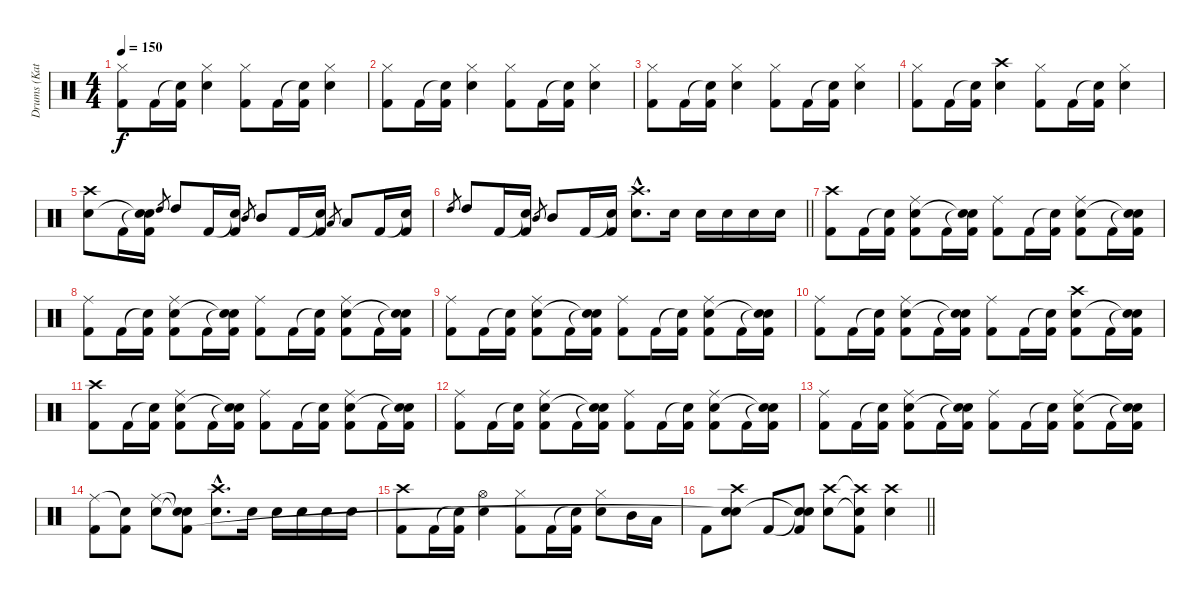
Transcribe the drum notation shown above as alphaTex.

\track ("Drums (Katsuji)" "Drums (Kat") {instrument percussion}
\staff {score}
\articulation defaults
\ts (4 4)
\tempo 150
\clef neutral
\ks c
("Hi-Hat (closed)" "Kick (hit) 2").8{dy f} "Kick (hit) 2".16 ("Snare (hit)"{t} "Kick (hit) 2").16 ("Hi-Hat (closed)" "Snare (hit) 2").4 ("Hi-Hat (closed)" "Kick (hit) 2").8 "Kick (hit) 2".16 ("Snare (hit)"{t} "Kick (hit) 2").16 ("Hi-Hat (closed)" "Snare (hit) 2").4 |
("Hi-Hat (closed)" "Kick (hit) 2").8 "Kick (hit) 2".16 ("Snare (hit)"{t} "Kick (hit) 2").16 ("Hi-Hat (closed)" "Snare (hit) 2").4 ("Hi-Hat (closed)" "Kick (hit) 2").8 "Kick (hit) 2".16 ("Snare (hit)"{t} "Kick (hit) 2").16 ("Hi-Hat (closed)" "Snare (hit) 2").4 |
("Hi-Hat (closed)" "Kick (hit) 2").8 "Kick (hit) 2".16 ("Snare (hit)"{t} "Kick (hit) 2").16 ("Hi-Hat (closed)" "Snare (hit) 2").4 ("Hi-Hat (closed)" "Kick (hit) 2").8 "Kick (hit) 2".16 ("Snare (hit)"{t} "Kick (hit) 2").16 ("Hi-Hat (closed)" "Snare (hit) 2").4 |
("Hi-Hat (closed)" "Kick (hit) 2").8 "Kick (hit) 2".16 ("Snare (hit)"{t} "Kick (hit) 2").16 ("Crash high (hit)" "Snare (hit) 2").4 ("Hi-Hat (closed)" "Kick (hit) 2").8 "Kick (hit) 2".16 ("Snare (hit)"{t} "Kick (hit) 2").16 ("Hi-Hat (closed)" "Snare (hit) 2").4 |
("Crash high (hit)" "Snare (hit) 2").8 "Kick (hit) 2".16 ("Snare (hit)"{t} "Snare (hit)"{t} "Kick (hit) 2").16 "High Tom (hit)".8{gr} "High Tom (hit)".8 "Kick (hit) 2".16 ("Snare (hit)"{t} "Kick (hit) 2").16 "Mid Tom (hit)".8{gr} "Mid Tom (hit)".8 "Kick (hit) 2".16 ("Snare (hit)"{t} "Kick (hit) 2").16 "Low Tom (hit)".8{gr} "Low Tom (hit)".8 "Kick (hit) 2".16 ("Snare (hit)"{t} "Kick (hit) 2").16 |
\barLineRight lightlight "High Tom (hit)".8{gr} "High Tom (hit)".8 "Kick (hit) 2".16
("Snare (hit)"{t} "Kick (hit) 2").16 "Mid Tom (hit)".8{gr} "Mid Tom (hit)".8 "Kick (hit) 2".16 ("Snare (hit)"{t} "Kick (hit) 2").16 ("Crash high (hit)"{hac} "Snare (hit) 2"{hac}).8{d} "Snare (hit) 2".16 "Snare (hit) 2".16 "Snare (hit) 2".16 "Snare (hit) 2".16 "Snare (hit) 2".16 |
("Crash high (hit)" "Kick (hit) 2").8 "Kick (hit) 2".16 ("Snare (hit)"{t} "Kick (hit) 2").16 ("Ride (middle)" "Snare (hit) 2" "Kick (hit) 2").8 "Kick (hit) 2".16 ("Snare (hit)"{t} "Snare (hit)"{t} "Kick (hit) 2").16 ("Ride (middle)" "Kick (hit) 2").8 "Kick (hit) 2".16 ("Snare (hit)"{t} "Kick (hit) 2").16 ("Ride (middle)" "Snare (hit) 2" "Kick (hit) 2").8 "Kick (hit) 2".16 ("Snare (hit)"{t} "Snare (hit)"{t} "Kick (hit) 2").16 |
("Ride (middle)" "Kick (hit) 2").8 "Kick (hit) 2".16 ("Snare (hit)"{t} "Kick (hit) 2").16 ("Ride (middle)" "Snare (hit) 2" "Kick (hit) 2").8 "Kick (hit) 2".16 ("Snare (hit)"{t} "Snare (hit)"{t} "Kick (hit) 2").16 ("Ride (middle)" "Kick (hit) 2").8 "Kick (hit) 2".16 ("Snare (hit)"{t} "Kick (hit) 2").16 ("Ride (middle)" "Snare (hit) 2" "Kick (hit) 2").8 "Kick (hit) 2".16 ("Snare (hit)"{t} "Snare (hit)"{t} "Kick (hit) 2").16 |
("Ride (middle)" "Kick (hit) 2").8 "Kick (hit) 2".16 ("Snare (hit)"{t} "Kick (hit) 2").16 ("Ride (middle)" "Snare (hit) 2" "Kick (hit) 2").8 "Kick (hit) 2".16 ("Snare (hit)"{t} "Snare (hit)"{t} "Kick (hit) 2").16 ("Ride (middle)" "Kick (hit) 2").8 "Kick (hit) 2".16 ("Snare (hit)"{t} "Kick (hit) 2").16 ("Ride (middle)" "Snare (hit) 2" "Kick (hit) 2").8 "Kick (hit) 2".16 ("Snare (hit)"{t} "Snare (hit)"{t} "Kick (hit) 2").16 |
("Ride (middle)" "Kick (hit) 2").8 "Kick (hit) 2".16 ("Snare (hit)"{t} "Kick (hit) 2").16 ("Ride (middle)" "Snare (hit) 2" "Kick (hit) 2").8 "Kick (hit) 2".16 ("Snare (hit)"{t} "Snare (hit)"{t} "Kick (hit) 2").16 ("Ride (middle)" "Kick (hit) 2").8 "Kick (hit) 2".16 ("Snare (hit)"{t} "Kick (hit) 2").16 ("Crash high (hit)" "Snare (hit) 2" "Kick (hit) 2").8 "Kick (hit) 2".16 ("Snare (hit)"{t} "Snare (hit)"{t} "Kick (hit) 2").16 |
("Crash high (hit)" "Kick (hit) 2").8 "Kick (hit) 2".16 ("Snare (hit)"{t} "Kick (hit) 2").16 ("Ride (middle)" "Snare (hit) 2" "Kick (hit) 2").8 "Kick (hit) 2".16 ("Snare (hit)"{t} "Snare (hit)"{t} "Kick (hit) 2").16 ("Ride (middle)" "Kick (hit) 2").8 "Kick (hit) 2".16 ("Snare (hit)"{t} "Kick (hit) 2").16 ("Ride (middle)" "Snare (hit) 2" "Kick (hit) 2").8 "Kick (hit) 2".16 ("Snare (hit)"{t} "Snare (hit)"{t} "Kick (hit) 2").16 |
("Ride (middle)" "Kick (hit) 2").8 "Kick (hit) 2".16 ("Snare (hit)"{t} "Kick (hit) 2").16 ("Ride (middle)" "Snare (hit) 2" "Kick (hit) 2").8 "Kick (hit) 2".16 ("Snare (hit)"{t} "Snare (hit)"{t} "Kick (hit) 2").16 ("Ride (middle)" "Kick (hit) 2").8 "Kick (hit) 2".16 ("Snare (hit)"{t} "Kick (hit) 2").16 ("Ride (middle)" "Snare (hit) 2" "Kick (hit) 2").8 "Kick (hit) 2".16 ("Snare (hit)"{t} "Snare (hit)"{t} "Kick (hit) 2").16 |
("Ride (middle)" "Kick (hit) 2").8 "Kick (hit) 2".16 ("Snare (hit)"{t} "Kick (hit) 2").16 ("Ride (middle)" "Snare (hit) 2" "Kick (hit) 2").8 "Kick (hit) 2".16 ("Snare (hit)"{t} "Snare (hit)"{t} "Kick (hit) 2").16 ("Ride (middle)" "Kick (hit) 2").8 "Kick (hit) 2".16 ("Snare (hit)"{t} "Kick (hit) 2").16 ("Ride (middle)" "Snare (hit) 2" "Kick (hit) 2").8 "Kick (hit) 2".16 ("Snare (hit)"{t} "Snare (hit)"{t} "Kick (hit) 2").16 |
("Ride (middle)" "Kick (hit) 2").8 ("Snare (hit)"{t} "Kick (hit) 2").8 ("Ride (middle)" "Snare (hit) 2").8 ("Snare (hit)"{t} "Snare (hit)"{t} "Kick (hit) 2").8 ("Crash high (hit)"{hac} "Snare (hit) 2"{hac}).8{d} "Snare (hit) 2".16 "Snare (hit) 2".16 "Snare (hit) 2".16 "Snare (hit) 2".16 "Snare (hit) 2".16 |
("Crash high (hit)" "Kick (hit) 2").8 "Kick (hit) 2".16 ("Snare (hit)"{t} "Kick (hit) 2").16 ("Hi-Hat (open)" "Snare (hit) 2").4 ("Hi-Hat (closed)" "Kick (hit) 2").8 "Kick (hit) 2".16 ("Snare (hit)"{t} "Kick (hit) 2").16 ("Hi-Hat (closed)" "Snare (hit) 2").8 "Mid Tom (hit)".16 "Low Tom (hit)".16 |
\barLineRight lightlight "Kick (hit) 2".8
("Crash high (hit)" "Snare (hit) 2" "Snare (hit)"{t}).8 "Kick (hit) 2".8 ("Snare (hit)"{t} "Snare (hit)"{t} "Kick (hit) 2").8 ("Crash high (hit)" "Snare (hit) 2").8 ("Crash high (hit)"{t} "Electric Snare (hit)"{t} "Kick (hit) 2").8 ("Crash high (hit)" "Snare (hit) 2").4
